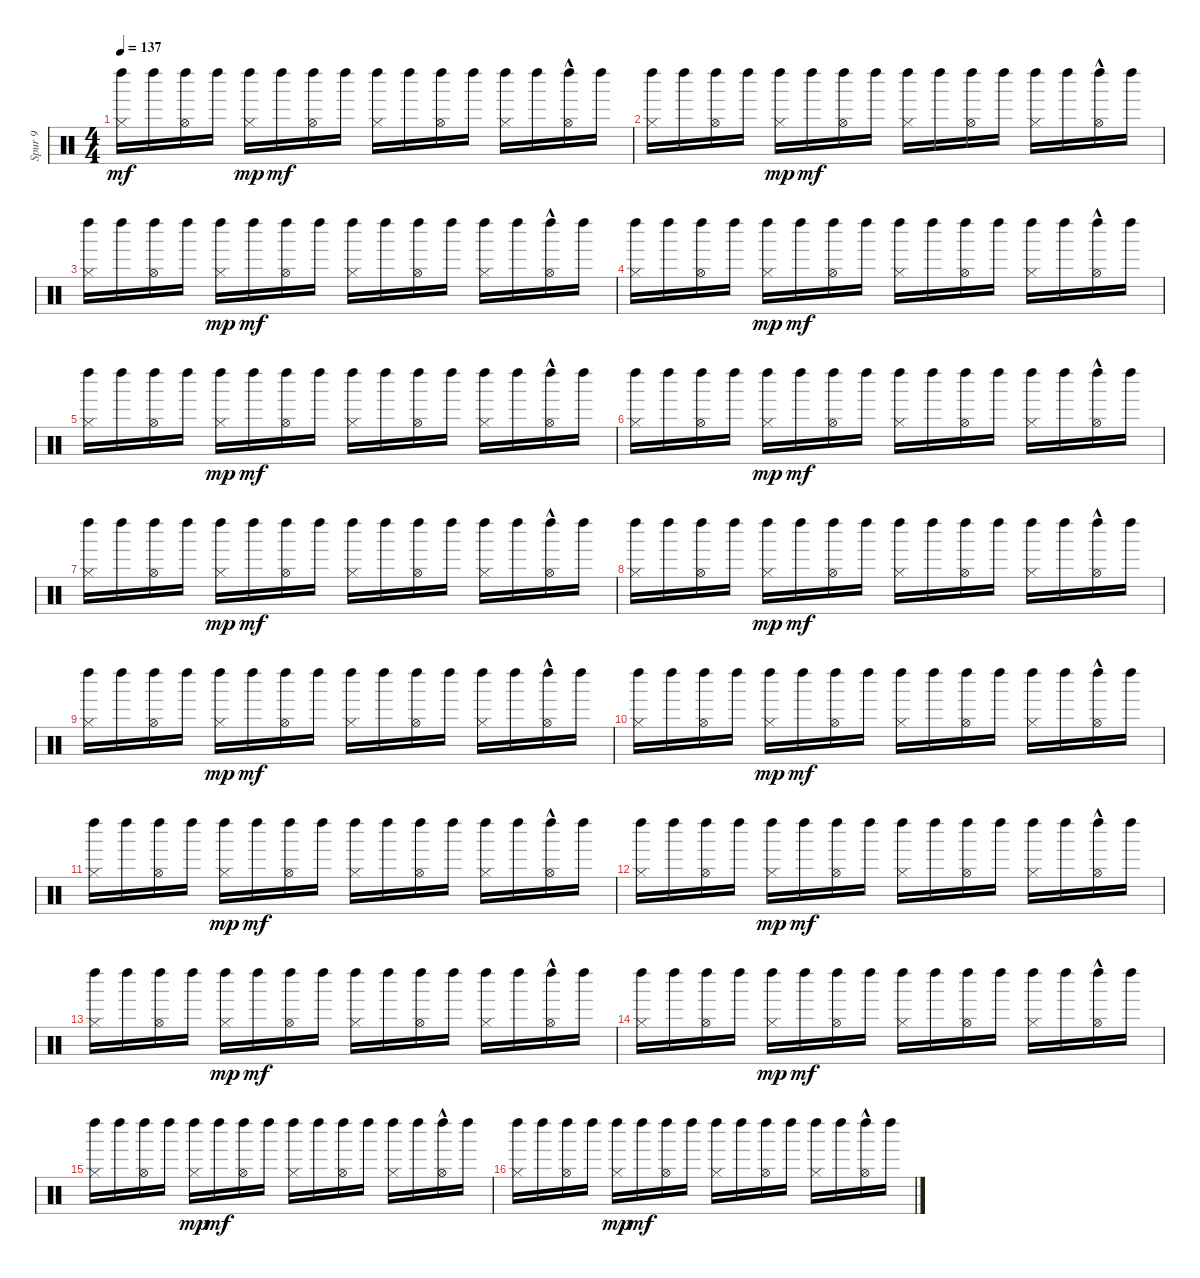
\track ("Spur 9" "Spur 9") {instrument percussion}
\staff {score}
\articulation defaults
\ts (4 4)
\tempo 137
\clef neutral
\ks c
("Hi-Hat (closed)" "Left Maraca (hit)").16{dy mf} "Left Maraca (hit)".16 ("Hi-Hat (open)" "Left Maraca (hit)").16 "Left Maraca (hit)".16 ("Hi-Hat (closed)" "Left Maraca (hit)").16{dy mp} "Left Maraca (hit)".16{dy mf} ("Hi-Hat (open)" "Left Maraca (hit)").16 "Left Maraca (hit)".16 ("Hi-Hat (closed)" "Left Maraca (hit)").16 "Left Maraca (hit)".16 ("Hi-Hat (open)" "Left Maraca (hit)").16 "Left Maraca (hit)".16 ("Hi-Hat (closed)" "Left Maraca (hit)").16 "Left Maraca (hit)".16 ("Hi-Hat (open)"{hac} "Left Maraca (hit)").16 "Left Maraca (hit)".16 |
("Hi-Hat (closed)" "Left Maraca (hit)").16 "Left Maraca (hit)".16 ("Hi-Hat (open)" "Left Maraca (hit)").16 "Left Maraca (hit)".16 ("Hi-Hat (closed)" "Left Maraca (hit)").16{dy mp} "Left Maraca (hit)".16{dy mf} ("Hi-Hat (open)" "Left Maraca (hit)").16 "Left Maraca (hit)".16 ("Hi-Hat (closed)" "Left Maraca (hit)").16 "Left Maraca (hit)".16 ("Hi-Hat (open)" "Left Maraca (hit)").16 "Left Maraca (hit)".16 ("Hi-Hat (closed)" "Left Maraca (hit)").16 "Left Maraca (hit)".16 ("Hi-Hat (open)"{hac} "Left Maraca (hit)").16 "Left Maraca (hit)".16 |
("Hi-Hat (closed)" "Left Maraca (hit)").16 "Left Maraca (hit)".16 ("Hi-Hat (open)" "Left Maraca (hit)").16 "Left Maraca (hit)".16 ("Hi-Hat (closed)" "Left Maraca (hit)").16{dy mp} "Left Maraca (hit)".16{dy mf} ("Hi-Hat (open)" "Left Maraca (hit)").16 "Left Maraca (hit)".16 ("Hi-Hat (closed)" "Left Maraca (hit)").16 "Left Maraca (hit)".16 ("Hi-Hat (open)" "Left Maraca (hit)").16 "Left Maraca (hit)".16 ("Hi-Hat (closed)" "Left Maraca (hit)").16 "Left Maraca (hit)".16 ("Hi-Hat (open)"{hac} "Left Maraca (hit)").16 "Left Maraca (hit)".16 |
("Hi-Hat (closed)" "Left Maraca (hit)").16 "Left Maraca (hit)".16 ("Hi-Hat (open)" "Left Maraca (hit)").16 "Left Maraca (hit)".16 ("Hi-Hat (closed)" "Left Maraca (hit)").16{dy mp} "Left Maraca (hit)".16{dy mf} ("Hi-Hat (open)" "Left Maraca (hit)").16 "Left Maraca (hit)".16 ("Hi-Hat (closed)" "Left Maraca (hit)").16 "Left Maraca (hit)".16 ("Hi-Hat (open)" "Left Maraca (hit)").16 "Left Maraca (hit)".16 ("Hi-Hat (closed)" "Left Maraca (hit)").16 "Left Maraca (hit)".16 ("Hi-Hat (open)"{hac} "Left Maraca (hit)").16 "Left Maraca (hit)".16 |
("Hi-Hat (closed)" "Left Maraca (hit)").16 "Left Maraca (hit)".16 ("Hi-Hat (open)" "Left Maraca (hit)").16 "Left Maraca (hit)".16 ("Hi-Hat (closed)" "Left Maraca (hit)").16{dy mp} "Left Maraca (hit)".16{dy mf} ("Hi-Hat (open)" "Left Maraca (hit)").16 "Left Maraca (hit)".16 ("Hi-Hat (closed)" "Left Maraca (hit)").16 "Left Maraca (hit)".16 ("Hi-Hat (open)" "Left Maraca (hit)").16 "Left Maraca (hit)".16 ("Hi-Hat (closed)" "Left Maraca (hit)").16 "Left Maraca (hit)".16 ("Hi-Hat (open)"{hac} "Left Maraca (hit)").16 "Left Maraca (hit)".16 |
("Hi-Hat (closed)" "Left Maraca (hit)").16 "Left Maraca (hit)".16 ("Hi-Hat (open)" "Left Maraca (hit)").16 "Left Maraca (hit)".16 ("Hi-Hat (closed)" "Left Maraca (hit)").16{dy mp} "Left Maraca (hit)".16{dy mf} ("Hi-Hat (open)" "Left Maraca (hit)").16 "Left Maraca (hit)".16 ("Hi-Hat (closed)" "Left Maraca (hit)").16 "Left Maraca (hit)".16 ("Hi-Hat (open)" "Left Maraca (hit)").16 "Left Maraca (hit)".16 ("Hi-Hat (closed)" "Left Maraca (hit)").16 "Left Maraca (hit)".16 ("Hi-Hat (open)"{hac} "Left Maraca (hit)").16 "Left Maraca (hit)".16 |
("Hi-Hat (closed)" "Left Maraca (hit)").16 "Left Maraca (hit)".16 ("Hi-Hat (open)" "Left Maraca (hit)").16 "Left Maraca (hit)".16 ("Hi-Hat (closed)" "Left Maraca (hit)").16{dy mp} "Left Maraca (hit)".16{dy mf} ("Hi-Hat (open)" "Left Maraca (hit)").16 "Left Maraca (hit)".16 ("Hi-Hat (closed)" "Left Maraca (hit)").16 "Left Maraca (hit)".16 ("Hi-Hat (open)" "Left Maraca (hit)").16 "Left Maraca (hit)".16 ("Hi-Hat (closed)" "Left Maraca (hit)").16 "Left Maraca (hit)".16 ("Hi-Hat (open)"{hac} "Left Maraca (hit)").16 "Left Maraca (hit)".16 |
("Hi-Hat (closed)" "Left Maraca (hit)").16 "Left Maraca (hit)".16 ("Hi-Hat (open)" "Left Maraca (hit)").16 "Left Maraca (hit)".16 ("Hi-Hat (closed)" "Left Maraca (hit)").16{dy mp} "Left Maraca (hit)".16{dy mf} ("Hi-Hat (open)" "Left Maraca (hit)").16 "Left Maraca (hit)".16 ("Hi-Hat (closed)" "Left Maraca (hit)").16 "Left Maraca (hit)".16 ("Hi-Hat (open)" "Left Maraca (hit)").16 "Left Maraca (hit)".16 ("Hi-Hat (closed)" "Left Maraca (hit)").16 "Left Maraca (hit)".16 ("Hi-Hat (open)"{hac} "Left Maraca (hit)").16 "Left Maraca (hit)".16 |
("Hi-Hat (closed)" "Left Maraca (hit)").16 "Left Maraca (hit)".16 ("Hi-Hat (open)" "Left Maraca (hit)").16 "Left Maraca (hit)".16 ("Hi-Hat (closed)" "Left Maraca (hit)").16{dy mp} "Left Maraca (hit)".16{dy mf} ("Hi-Hat (open)" "Left Maraca (hit)").16 "Left Maraca (hit)".16 ("Hi-Hat (closed)" "Left Maraca (hit)").16 "Left Maraca (hit)".16 ("Hi-Hat (open)" "Left Maraca (hit)").16 "Left Maraca (hit)".16 ("Hi-Hat (closed)" "Left Maraca (hit)").16 "Left Maraca (hit)".16 ("Hi-Hat (open)"{hac} "Left Maraca (hit)").16 "Left Maraca (hit)".16 |
("Hi-Hat (closed)" "Left Maraca (hit)").16 "Left Maraca (hit)".16 ("Hi-Hat (open)" "Left Maraca (hit)").16 "Left Maraca (hit)".16 ("Hi-Hat (closed)" "Left Maraca (hit)").16{dy mp} "Left Maraca (hit)".16{dy mf} ("Hi-Hat (open)" "Left Maraca (hit)").16 "Left Maraca (hit)".16 ("Hi-Hat (closed)" "Left Maraca (hit)").16 "Left Maraca (hit)".16 ("Hi-Hat (open)" "Left Maraca (hit)").16 "Left Maraca (hit)".16 ("Hi-Hat (closed)" "Left Maraca (hit)").16 "Left Maraca (hit)".16 ("Hi-Hat (open)"{hac} "Left Maraca (hit)").16 "Left Maraca (hit)".16 |
("Hi-Hat (closed)" "Left Maraca (hit)").16 "Left Maraca (hit)".16 ("Hi-Hat (open)" "Left Maraca (hit)").16 "Left Maraca (hit)".16 ("Hi-Hat (closed)" "Left Maraca (hit)").16{dy mp} "Left Maraca (hit)".16{dy mf} ("Hi-Hat (open)" "Left Maraca (hit)").16 "Left Maraca (hit)".16 ("Hi-Hat (closed)" "Left Maraca (hit)").16 "Left Maraca (hit)".16 ("Hi-Hat (open)" "Left Maraca (hit)").16 "Left Maraca (hit)".16 ("Hi-Hat (closed)" "Left Maraca (hit)").16 "Left Maraca (hit)".16 ("Hi-Hat (open)"{hac} "Left Maraca (hit)").16 "Left Maraca (hit)".16 |
("Hi-Hat (closed)" "Left Maraca (hit)").16 "Left Maraca (hit)".16 ("Hi-Hat (open)" "Left Maraca (hit)").16 "Left Maraca (hit)".16 ("Hi-Hat (closed)" "Left Maraca (hit)").16{dy mp} "Left Maraca (hit)".16{dy mf} ("Hi-Hat (open)" "Left Maraca (hit)").16 "Left Maraca (hit)".16 ("Hi-Hat (closed)" "Left Maraca (hit)").16 "Left Maraca (hit)".16 ("Hi-Hat (open)" "Left Maraca (hit)").16 "Left Maraca (hit)".16 ("Hi-Hat (closed)" "Left Maraca (hit)").16 "Left Maraca (hit)".16 ("Hi-Hat (open)"{hac} "Left Maraca (hit)").16 "Left Maraca (hit)".16 |
("Hi-Hat (closed)" "Left Maraca (hit)").16 "Left Maraca (hit)".16 ("Hi-Hat (open)" "Left Maraca (hit)").16 "Left Maraca (hit)".16 ("Hi-Hat (closed)" "Left Maraca (hit)").16{dy mp} "Left Maraca (hit)".16{dy mf} ("Hi-Hat (open)" "Left Maraca (hit)").16 "Left Maraca (hit)".16 ("Hi-Hat (closed)" "Left Maraca (hit)").16 "Left Maraca (hit)".16 ("Hi-Hat (open)" "Left Maraca (hit)").16 "Left Maraca (hit)".16 ("Hi-Hat (closed)" "Left Maraca (hit)").16 "Left Maraca (hit)".16 ("Hi-Hat (open)"{hac} "Left Maraca (hit)").16 "Left Maraca (hit)".16 |
("Hi-Hat (closed)" "Left Maraca (hit)").16 "Left Maraca (hit)".16 ("Hi-Hat (open)" "Left Maraca (hit)").16 "Left Maraca (hit)".16 ("Hi-Hat (closed)" "Left Maraca (hit)").16{dy mp} "Left Maraca (hit)".16{dy mf} ("Hi-Hat (open)" "Left Maraca (hit)").16 "Left Maraca (hit)".16 ("Hi-Hat (closed)" "Left Maraca (hit)").16 "Left Maraca (hit)".16 ("Hi-Hat (open)" "Left Maraca (hit)").16 "Left Maraca (hit)".16 ("Hi-Hat (closed)" "Left Maraca (hit)").16 "Left Maraca (hit)".16 ("Hi-Hat (open)"{hac} "Left Maraca (hit)").16 "Left Maraca (hit)".16 |
("Hi-Hat (closed)" "Left Maraca (hit)").16 "Left Maraca (hit)".16 ("Hi-Hat (open)" "Left Maraca (hit)").16 "Left Maraca (hit)".16 ("Hi-Hat (closed)" "Left Maraca (hit)").16{dy mp} "Left Maraca (hit)".16{dy mf} ("Hi-Hat (open)" "Left Maraca (hit)").16 "Left Maraca (hit)".16 ("Hi-Hat (closed)" "Left Maraca (hit)").16 "Left Maraca (hit)".16 ("Hi-Hat (open)" "Left Maraca (hit)").16 "Left Maraca (hit)".16 ("Hi-Hat (closed)" "Left Maraca (hit)").16 "Left Maraca (hit)".16 ("Hi-Hat (open)"{hac} "Left Maraca (hit)").16 "Left Maraca (hit)".16 |
("Hi-Hat (closed)" "Left Maraca (hit)").16 "Left Maraca (hit)".16 ("Hi-Hat (open)" "Left Maraca (hit)").16 "Left Maraca (hit)".16 ("Hi-Hat (closed)" "Left Maraca (hit)").16{dy mp} "Left Maraca (hit)".16{dy mf} ("Hi-Hat (open)" "Left Maraca (hit)").16 "Left Maraca (hit)".16 ("Hi-Hat (closed)" "Left Maraca (hit)").16 "Left Maraca (hit)".16 ("Hi-Hat (open)" "Left Maraca (hit)").16 "Left Maraca (hit)".16 ("Hi-Hat (closed)" "Left Maraca (hit)").16 "Left Maraca (hit)".16 ("Hi-Hat (open)"{hac} "Left Maraca (hit)").16 "Left Maraca (hit)".16
